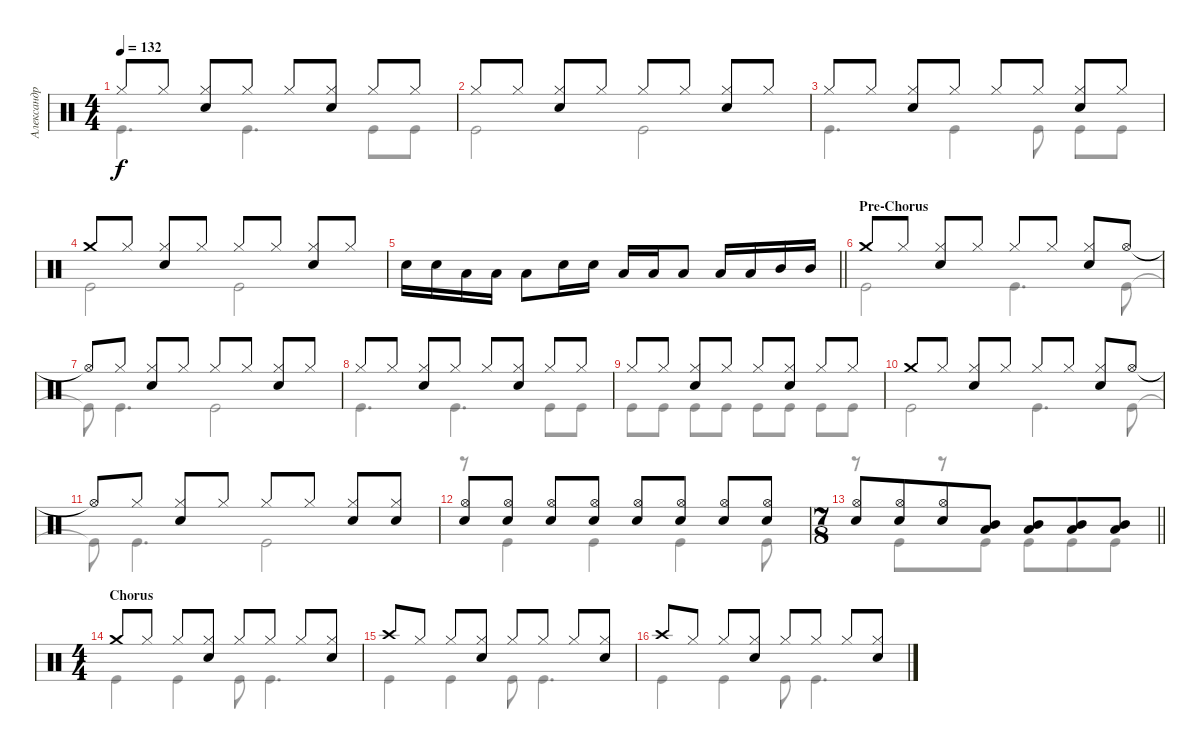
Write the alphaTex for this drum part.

\track ("Александр Манякин" "Александр ") {instrument percussion}
\staff {score}
\articulation defaults
\voice
\ts (4 4)
\tempo 132
\clef neutral
\ks c "Hi-Hat (closed)".8{dy f} "Hi-Hat (closed)".8
("Hi-Hat (closed)" "Snare (hit) 2").8 "Hi-Hat (closed)".8 "Hi-Hat (closed)".8 ("Hi-Hat (closed)" "Snare (hit) 2").8 "Hi-Hat (closed)".8 "Hi-Hat (closed)".8 |
"Hi-Hat (closed)".8 "Hi-Hat (closed)".8 ("Hi-Hat (closed)" "Snare (hit) 2").8 "Hi-Hat (closed)".8 "Hi-Hat (closed)".8 "Hi-Hat (closed)".8 ("Hi-Hat (closed)" "Snare (hit) 2").8 "Hi-Hat (closed)".8 |
"Hi-Hat (closed)".8 "Hi-Hat (closed)".8 ("Hi-Hat (closed)" "Snare (hit) 2").8 "Hi-Hat (closed)".8 "Hi-Hat (closed)".8 "Hi-Hat (closed)".8 ("Hi-Hat (closed)" "Snare (hit) 2").8 "Hi-Hat (closed)".8 |
"Crash medium (hit)".8 "Hi-Hat (closed)".8 ("Hi-Hat (closed)" "Snare (hit) 2").8 "Hi-Hat (closed)".8 "Hi-Hat (closed)".8 "Hi-Hat (closed)".8 ("Hi-Hat (closed)" "Snare (hit) 2").8 "Hi-Hat (closed)".8 |
\barLineRight lightlight "Snare (hit) 2".16 "Snare (hit) 2".16 "Low Tom (hit)".16 "Low Tom (hit)".16 "Low Tom (hit)".8 "Snare (hit) 2".16 "Snare (hit) 2".16 "Low Tom (hit)".16 "Low Tom (hit)".16 "Low Tom (hit)".8 "Low Tom (hit)".16 "Low Tom (hit)".16 "Mid Tom (hit)".16 "Mid Tom (hit)".16
|
\section ("" "Pre-Chorus")
"Crash medium (hit)".8 "Hi-Hat (closed)".8 ("Hi-Hat (closed)" "Snare (hit) 2").8 "Hi-Hat (closed)".8 "Hi-Hat (closed)".8 "Hi-Hat (closed)".8 ("Hi-Hat (closed)" "Snare (hit) 2").8 "Hi-Hat (open)".8 |
"Hi-Hat (open)"{t}.8 "Hi-Hat (closed)".8 ("Hi-Hat (closed)" "Snare (hit) 2").8 "Hi-Hat (closed)".8 "Hi-Hat (closed)".8 "Hi-Hat (closed)".8 ("Hi-Hat (closed)" "Snare (hit) 2").8 "Hi-Hat (closed)".8 |
"Hi-Hat (closed)".8 "Hi-Hat (closed)".8 ("Hi-Hat (closed)" "Snare (hit) 2").8 "Hi-Hat (closed)".8 "Hi-Hat (closed)".8 ("Hi-Hat (closed)" "Snare (hit) 2").8 "Hi-Hat (closed)".8 "Hi-Hat (closed)".8 |
"Hi-Hat (closed)".8 "Hi-Hat (closed)".8 ("Hi-Hat (closed)" "Snare (hit) 2").8 "Hi-Hat (closed)".8 "Hi-Hat (closed)".8 ("Hi-Hat (closed)" "Snare (hit) 2").8 "Hi-Hat (closed)".8 "Hi-Hat (closed)".8 |
"Crash medium (hit)".8 "Hi-Hat (closed)".8 ("Hi-Hat (closed)" "Snare (hit) 2").8 "Hi-Hat (closed)".8 "Hi-Hat (closed)".8 "Hi-Hat (closed)".8 ("Hi-Hat (closed)" "Snare (hit) 2").8 "Hi-Hat (open)".8 |
"Hi-Hat (open)"{t}.8 "Hi-Hat (closed)".8 ("Hi-Hat (closed)" "Snare (hit) 2").8 "Hi-Hat (closed)".8 "Hi-Hat (closed)".8 "Hi-Hat (closed)".8 ("Hi-Hat (closed)" "Snare (hit) 2").8 ("Hi-Hat (closed)" "Snare (hit) 2").8 |
("Snare (hit) 2" "Hi-Hat (open)").8 ("Snare (hit) 2" "Hi-Hat (open)").8 ("Snare (hit) 2" "Hi-Hat (open)").8 ("Snare (hit) 2" "Hi-Hat (open)").8 ("Snare (hit) 2" "Hi-Hat (open)").8 ("Snare (hit) 2" "Hi-Hat (open)").8 ("Snare (hit) 2" "Hi-Hat (open)").8 ("Snare (hit) 2" "Hi-Hat (open)").8 |
\ts (7 8)
\barLineRight lightlight
("Snare (hit) 2" "Hi-Hat (open)").8 ("Snare (hit) 2" "Hi-Hat (open)").8 ("Hi-Hat (open)" "Snare (hit) 2").8 ("Low Tom (hit)" "Mid Tom (hit)").8 ("Low Tom (hit)" "Mid Tom (hit)").8 ("Low Tom (hit)" "Mid Tom (hit)").8 ("Low Tom (hit)" "Mid Tom (hit)").8 |
\ts (4 4)
\section ("" "Chorus")
"Crash medium (hit)".8 "Hi-Hat (closed)".8 "Hi-Hat (closed)".8 ("Hi-Hat (closed)" "Snare (hit) 2").8 "Hi-Hat (closed)".8 "Hi-Hat (closed)".8 "Hi-Hat (closed)".8 ("Hi-Hat (closed)" "Snare (hit) 2").8 |
"Crash high (hit)".8 "Hi-Hat (closed)".8 "Hi-Hat (closed)".8 ("Hi-Hat (closed)" "Snare (hit) 2").8 "Hi-Hat (closed)".8 "Hi-Hat (closed)".8 "Hi-Hat (closed)".8 ("Hi-Hat (closed)" "Snare (hit) 2").8 |
"Crash high (hit)".8 "Hi-Hat (closed)".8 "Hi-Hat (closed)".8 ("Hi-Hat (closed)" "Snare (hit) 2").8 "Hi-Hat (closed)".8 "Hi-Hat (closed)".8 "Hi-Hat (closed)".8 ("Hi-Hat (closed)" "Snare (hit) 2").8
\voice
\clef neutral
\ottava regular
\simile none
\ks c "Kick (hit)".4{d dy f} "Kick (hit)".4{d} "Kick (hit)".8 "Kick (hit)".8
|
"Kick (hit)".2 "Kick (hit)".2 |
"Kick (hit)".4{d} "Kick (hit)".4 "Kick (hit)".8 "Kick (hit)".8 "Kick (hit)".8 |
"Kick (hit)".2 "Kick (hit)".2 |
\barLineRight lightlight
|
"Kick (hit)".2 "Kick (hit)".4{d} "Kick (hit)".8 |
"Kick (hit)"{t}.8 "Kick (hit)".4{d} "Kick (hit)".2 |
"Kick (hit)".4{d} "Kick (hit)".4{d} "Kick (hit)".8 "Kick (hit)".8 |
"Kick (hit)".8 "Kick (hit)".8 "Kick (hit)".8 "Kick (hit)".8 "Kick (hit)".8 "Kick (hit)".8 "Kick (hit)".8 "Kick (hit)".8 |
"Kick (hit)".2 "Kick (hit)".4{d} "Kick (hit)".8 |
"Kick (hit)"{t}.8 "Kick (hit)".4{d} "Kick (hit)".2 |
r.8 "Kick (hit)".4 "Kick (hit)".4 "Kick (hit)".4 "Kick (hit)".8 |
\barLineRight lightlight
r.8 "Kick (hit)".8 r.8 "Kick (hit)".8 "Kick (hit)".8 "Kick (hit)".8 "Kick (hit)".8 |
"Kick (hit)".4 "Kick (hit)".4 "Kick (hit)".8 "Kick (hit)".4{d} |
"Kick (hit)".4 "Kick (hit)".4 "Kick (hit)".8 "Kick (hit)".4{d} |
"Kick (hit)".4 "Kick (hit)".4 "Kick (hit)".8 "Kick (hit)".4{d}
